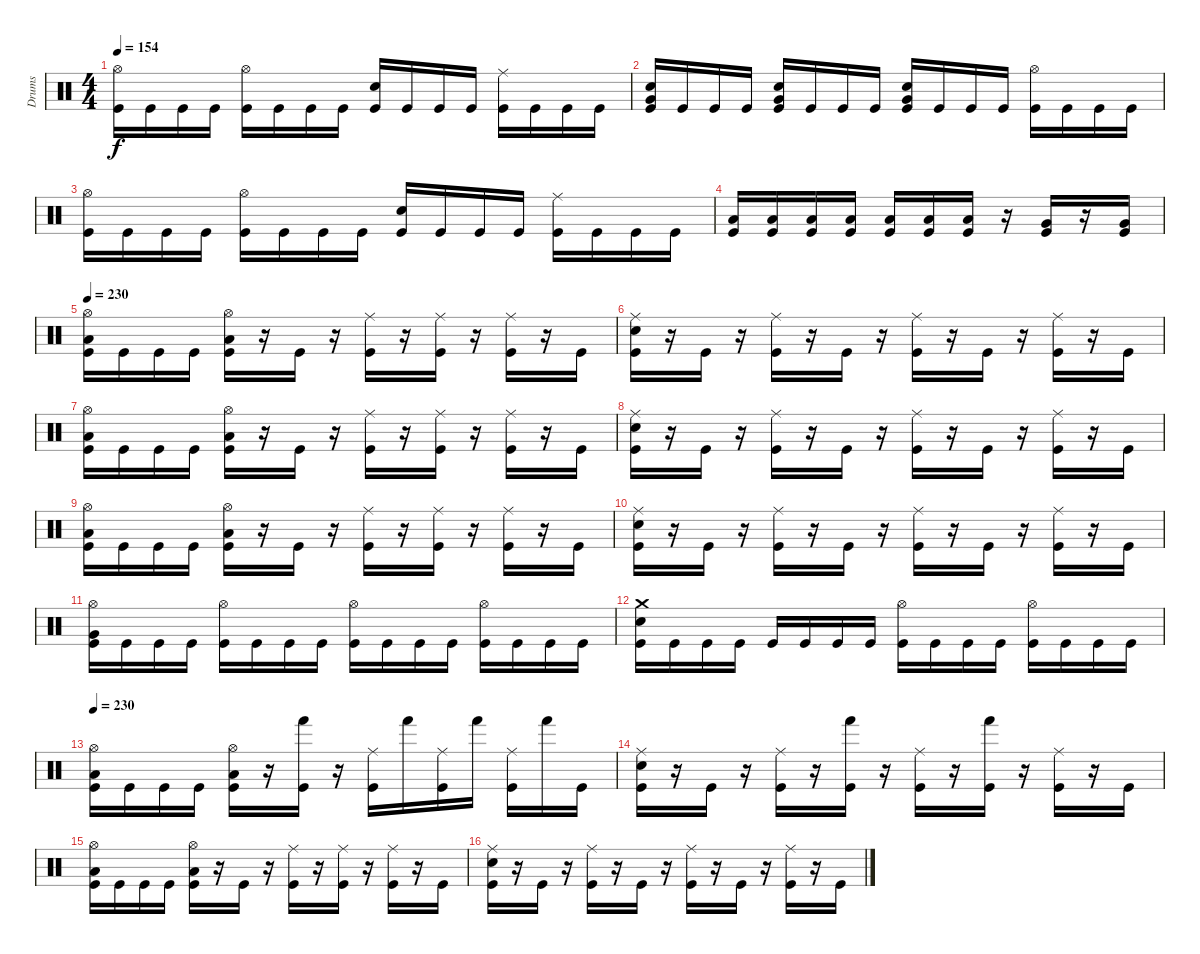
\track ("Drums" "Drums") {instrument percussion}
\staff {score}
\articulation defaults
\ts (4 4)
\tempo 154
\clef neutral
\ks c
("Hi-Hat (open)" "Kick (hit)").16{dy f} "Kick (hit)".16 "Kick (hit)".16 "Kick (hit)".16 ("Hi-Hat (open)" "Kick (hit)").16 "Kick (hit)".16 "Kick (hit)".16 "Kick (hit)".16 ("Electric Snare (hit)" "Kick (hit)").16 "Kick (hit)".16 "Kick (hit)".16 "Kick (hit)".16 ("Ride (middle)" "Kick (hit)").16 "Kick (hit)".16 "Kick (hit)".16 "Kick (hit)".16 |
("Electric Snare (hit)" "Very Low Tom (hit)" "Kick (hit)").16 "Kick (hit)".16 "Kick (hit)".16 "Kick (hit)".16 ("Electric Snare (hit)" "Very Low Tom (hit)" "Kick (hit)").16 "Kick (hit)".16 "Kick (hit)".16 "Kick (hit)".16 ("Electric Snare (hit)" "Very Low Tom (hit)" "Kick (hit)").16 "Kick (hit)".16 "Kick (hit)".16 "Kick (hit)".16 ("Hi-Hat (open)" "Kick (hit)").16 "Kick (hit)".16 "Kick (hit)".16 "Kick (hit)".16 |
("Hi-Hat (open)" "Kick (hit)").16 "Kick (hit)".16 "Kick (hit)".16 "Kick (hit)".16 ("Hi-Hat (open)" "Kick (hit)").16 "Kick (hit)".16 "Kick (hit)".16 "Kick (hit)".16 ("Electric Snare (hit)" "Kick (hit)").16 "Kick (hit)".16 "Kick (hit)".16 "Kick (hit)".16 ("Ride (middle)" "Kick (hit)").16 "Kick (hit)".16 "Kick (hit)".16 "Kick (hit)".16 |
("Low Tom (hit)" "Kick (hit)").16 ("Low Tom (hit)" "Kick (hit)").16 ("Low Tom (hit)" "Kick (hit)").16 ("Low Tom (hit)" "Kick (hit)").16 ("Low Tom (hit)" "Kick (hit)").16 ("Low Tom (hit)" "Kick (hit)").16 ("Low Floor Tom (hit)" "Kick (hit)").16 r.16 ("Very Low Tom (hit)" "Kick (hit)").16 r.16 ("Very Low Tom (hit)" "Kick (hit)").16 |
\tempo 230
("Hi-Hat (open)" "Low Floor Tom (hit)" "Kick (hit)").16 "Kick (hit)".16 "Kick (hit)".16 "Kick (hit)".16 ("Hi-Hat (open)" "Low Floor Tom (hit)" "Kick (hit)").16 r.16 "Kick (hit)".16 r.16 ("Ride (middle)" "Kick (hit)").16 r.16 ("Ride (middle)" "Kick (hit)").16 r.16 ("Ride (middle)" "Kick (hit)").16 r.16 "Kick (hit)".16 |
("Ride (middle)" "Electric Snare (hit)" "Kick (hit)").16 r.16 "Kick (hit)".16 r.16 ("Ride (middle)" "Kick (hit)").16 r.16 "Kick (hit)".16 r.16 ("Ride (middle)" "Kick (hit)").16 r.16 "Kick (hit)".16 r.16 ("Ride (middle)" "Kick (hit)").16 r.16 "Kick (hit)".16 |
("Hi-Hat (open)" "Low Floor Tom (hit)" "Kick (hit)").16 "Kick (hit)".16 "Kick (hit)".16 "Kick (hit)".16 ("Hi-Hat (open)" "Low Floor Tom (hit)" "Kick (hit)").16 r.16 "Kick (hit)".16 r.16 ("Ride (middle)" "Kick (hit)").16 r.16 ("Ride (middle)" "Kick (hit)").16 r.16 ("Ride (middle)" "Kick (hit)").16 r.16 "Kick (hit)".16 |
("Ride (middle)" "Electric Snare (hit)" "Kick (hit)").16 r.16 "Kick (hit)".16 r.16 ("Ride (middle)" "Kick (hit)").16 r.16 "Kick (hit)".16 r.16 ("Ride (middle)" "Kick (hit)").16 r.16 "Kick (hit)".16 r.16 ("Ride (middle)" "Kick (hit)").16 r.16 "Kick (hit)".16 |
("Hi-Hat (open)" "Low Floor Tom (hit)" "Kick (hit)").16 "Kick (hit)".16 "Kick (hit)".16 "Kick (hit)".16 ("Hi-Hat (open)" "Low Floor Tom (hit)" "Kick (hit)").16 r.16 "Kick (hit)".16 r.16 ("Ride (middle)" "Kick (hit)").16 r.16 ("Ride (middle)" "Kick (hit)").16 r.16 ("Ride (middle)" "Kick (hit)").16 r.16 "Kick (hit)".16 |
("Ride (middle)" "Electric Snare (hit)" "Kick (hit)").16 r.16 "Kick (hit)".16 r.16 ("Ride (middle)" "Kick (hit)").16 r.16 "Kick (hit)".16 r.16 ("Ride (middle)" "Kick (hit)").16 r.16 "Kick (hit)".16 r.16 ("Ride (middle)" "Kick (hit)").16 r.16 "Kick (hit)".16 |
("Hi-Hat (open)" "Very Low Tom (hit)" "Kick (hit)").16 "Kick (hit)".16 "Kick (hit)".16 "Kick (hit)".16 ("Hi-Hat (open)" "Kick (hit)").16 "Kick (hit)".16 "Kick (hit)".16 "Kick (hit)".16 ("Hi-Hat (open)" "Kick (hit)").16 "Kick (hit)".16 "Kick (hit)".16 "Kick (hit)".16 ("Hi-Hat (open)" "Kick (hit)").16 "Kick (hit)".16 "Kick (hit)".16 "Kick (hit)".16 |
("Crash medium (hit)" "Electric Snare (hit)" "Kick (hit)").16 "Kick (hit)".16 "Kick (hit)".16 "Kick (hit)".16 "Kick (hit)".16 "Kick (hit)".16 "Kick (hit)".16 "Kick (hit)".16 ("Hi-Hat (open)" "Kick (hit)").16 "Kick (hit)".16 "Kick (hit)".16 "Kick (hit)".16 ("Hi-Hat (open)" "Kick (hit)").16 "Kick (hit)".16 "Kick (hit)".16 "Kick (hit)".16 |
\tempo 230
("Hi-Hat (open)" "Low Floor Tom (hit)" "Kick (hit)").16 "Kick (hit)".16 "Kick (hit)".16 "Kick (hit)".16 ("Hi-Hat (open)" "Low Floor Tom (hit)" "Kick (hit)").16 r.16 ("Hand (hit)" "Kick (hit)").16 r.16 ("Ride (middle)" "Kick (hit)").16 "Hand (hit)".16 ("Ride (middle)" "Kick (hit)").16 "Hand (hit)".16 ("Ride (middle)" "Kick (hit)").16 "Hand (hit)".16 "Kick (hit)".16 |
("Ride (middle)" "Electric Snare (hit)" "Kick (hit)").16 r.16 "Kick (hit)".16 r.16 ("Ride (middle)" "Kick (hit)").16 r.16 ("Hand (hit)" "Kick (hit)").16 r.16 ("Ride (middle)" "Kick (hit)").16 r.16 ("Hand (hit)" "Kick (hit)").16 r.16 ("Ride (middle)" "Kick (hit)").16 r.16 "Kick (hit)".16 |
("Hi-Hat (open)" "Low Floor Tom (hit)" "Kick (hit)").16 "Kick (hit)".16 "Kick (hit)".16 "Kick (hit)".16 ("Hi-Hat (open)" "Low Floor Tom (hit)" "Kick (hit)").16 r.16 "Kick (hit)".16 r.16 ("Ride (middle)" "Kick (hit)").16 r.16 ("Ride (middle)" "Kick (hit)").16 r.16 ("Ride (middle)" "Kick (hit)").16 r.16 "Kick (hit)".16 |
("Ride (middle)" "Electric Snare (hit)" "Kick (hit)").16 r.16 "Kick (hit)".16 r.16 ("Ride (middle)" "Kick (hit)").16 r.16 "Kick (hit)".16 r.16 ("Ride (middle)" "Kick (hit)").16 r.16 "Kick (hit)".16 r.16 ("Ride (middle)" "Kick (hit)").16 r.16 "Kick (hit)".16
